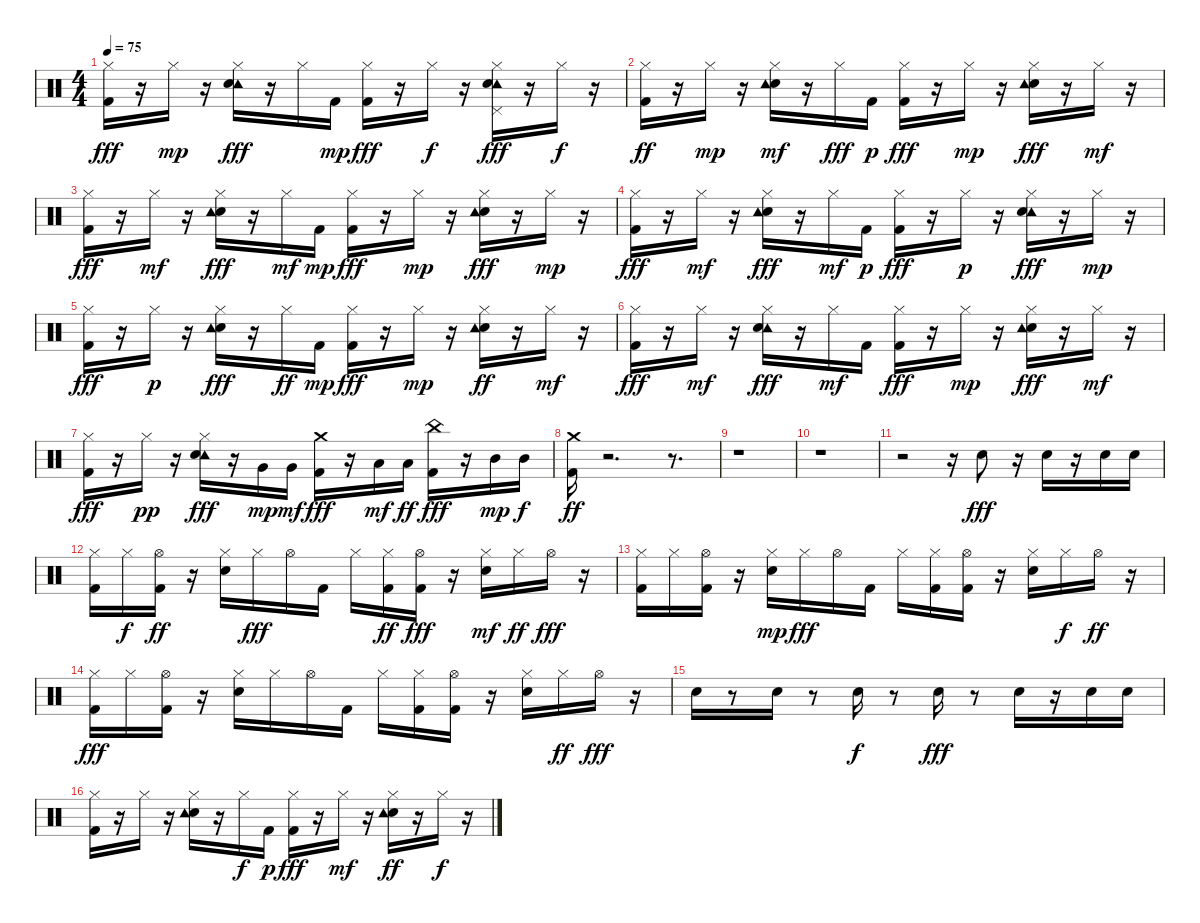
\track "" {instrument percussion}
\staff {score}
\articulation defaults
\ts (4 4)
\tempo 75
\clef neutral
\ks c
("Hi-Hat (closed)" "Kick (hit) 2").16{dy fff} r.16 "Hi-Hat (closed)".16{dy mp} r.16 ("Tambourine (hit)" "Hi-Hat (closed)" "Electric Snare (hit)").16{dy fff} r.16 "Hi-Hat (closed)".16 "Kick (hit) 2".16{dy mp} ("Hi-Hat (closed)" "Kick (hit) 2").16{dy fff} r.16 "Hi-Hat (closed)".16{dy f} r.16 ("Pedal Hi-Hat (hit)" "Tambourine (hit)" "Hi-Hat (closed)" "Electric Snare (hit)").16{dy fff} r.16 "Hi-Hat (closed)".16{dy f} r.16 |
("Hi-Hat (closed)" "Kick (hit) 2").16{dy ff} r.16 "Hi-Hat (closed)".16{dy mp} r.16 ("Hi-Hat (closed)" "Electric Snare (hit)" "Tambourine (hit)").16{dy mf} r.16 "Hi-Hat (closed)".16{dy fff} "Kick (hit) 2".16{dy p} ("Hi-Hat (closed)" "Kick (hit) 2").16{dy fff} r.16 "Hi-Hat (closed)".16{dy mp} r.16 ("Hi-Hat (closed)" "Electric Snare (hit)" "Tambourine (hit)").16{dy fff} r.16 "Hi-Hat (closed)".16{dy mf} r.16 |
("Hi-Hat (closed)" "Kick (hit) 2").16{dy fff} r.16 "Hi-Hat (closed)".16{dy mf} r.16 ("Electric Snare (hit)" "Hi-Hat (closed)" "Tambourine (hit)").16{dy fff} r.16 "Hi-Hat (closed)".16{dy mf} "Kick (hit) 2".16{dy mp} ("Hi-Hat (closed)" "Kick (hit) 2").16{dy fff} r.16 "Hi-Hat (closed)".16{dy mp} r.16 ("Electric Snare (hit)" "Tambourine (hit)" "Hi-Hat (closed)").16{dy fff} r.16 "Hi-Hat (closed)".16{dy mp} r.16 |
("Kick (hit) 2" "Hi-Hat (closed)").16{dy fff} r.16 "Hi-Hat (closed)".16{dy mf} r.16 ("Hi-Hat (closed)" "Electric Snare (hit)" "Tambourine (hit)").16{dy fff} r.16 "Hi-Hat (closed)".16{dy mf} "Kick (hit) 2".16{dy p} ("Kick (hit) 2" "Hi-Hat (closed)").16{dy fff} r.16 "Hi-Hat (closed)".16{dy p} r.16 ("Hi-Hat (closed)" "Tambourine (hit)" "Electric Snare (hit)").16{dy fff} r.16 "Hi-Hat (closed)".16{dy mp} r.16 |
("Kick (hit) 2" "Hi-Hat (closed)").16{dy fff} r.16 "Hi-Hat (closed)".16{dy p} r.16 ("Electric Snare (hit)" "Tambourine (hit)" "Hi-Hat (closed)").16{dy fff} r.16 "Hi-Hat (closed)".16{dy ff} "Kick (hit) 2".16{dy mp} ("Hi-Hat (closed)" "Kick (hit) 2").16{dy fff} r.16 "Hi-Hat (closed)".16{dy mp} r.16 ("Electric Snare (hit)" "Hi-Hat (closed)" "Tambourine (hit)").16{dy ff} r.16 "Hi-Hat (closed)".16{dy mf} r.16 |
("Hi-Hat (closed)" "Kick (hit) 2").16{dy fff} r.16 "Hi-Hat (closed)".16{dy mf} r.16 ("Tambourine (hit)" "Hi-Hat (closed)" "Electric Snare (hit)").16{dy fff} r.16 "Hi-Hat (closed)".16{dy mf} "Kick (hit) 2".16 ("Kick (hit) 2" "Hi-Hat (closed)").16{dy fff} r.16 "Hi-Hat (closed)".16{dy mp} r.16 ("Electric Snare (hit)" "Tambourine (hit)" "Hi-Hat (closed)").16{dy fff} r.16 "Hi-Hat (closed)".16{dy mf} r.16 |
("Hi-Hat (closed)" "Kick (hit) 2").16{dy fff} r.16 "Hi-Hat (closed)".16{dy pp} r.16 ("Hi-Hat (closed)" "Tambourine (hit)" "Electric Snare (hit)").16{dy fff} r.16 "Very Low Tom (hit)".16{dy mp} "Very Low Tom (hit)".16{dy mf} ("Kick (hit) 2" "Crash medium (hit)").16{dy fff} r.16 "Low Tom (hit)".16{dy mf} "Low Tom (hit)".16{dy ff} ("China (hit)" "Kick (hit) 2").16{dy fff} r.16 "Mid Tom (hit)".16{dy mp} "Mid Tom (hit)".16{dy f} |
("Kick (hit) 2" "Crash medium (hit)").16{dy ff} r.2{d} r.8{d} |
r.1 |
r.1 |
r.2 r.16 "Electric Snare (hit)".8{dy fff} r.16 "Electric Snare (hit)".16 r.16 "Electric Snare (hit)".16 "Electric Snare (hit)".16 |
("Hi-Hat (closed)" "Kick (hit) 2").16 "Hi-Hat (closed)".16{dy f} ("Hi-Hat (open)" "Kick (hit) 2").16{dy ff} r.16 ("Electric Snare (hit)" "Hi-Hat (closed)").16 "Hi-Hat (closed)".16{dy fff} "Hi-Hat (open)".16 "Kick (hit) 2".16 "Hi-Hat (closed)".16 ("Hi-Hat (closed)" "Kick (hit) 2").16{dy ff} ("Hi-Hat (open)" "Kick (hit) 2").16{dy fff} r.16 ("Electric Snare (hit)" "Hi-Hat (closed)").16{dy mf} "Hi-Hat (closed)".16{dy ff} "Hi-Hat (open)".16{dy fff} r.16 |
("Kick (hit) 2" "Hi-Hat (closed)").16 "Hi-Hat (closed)".16 ("Kick (hit) 2" "Hi-Hat (open)").16 r.16 ("Electric Snare (hit)" "Hi-Hat (closed)").16{dy mp} "Hi-Hat (closed)".16{dy fff} "Hi-Hat (open)".16 "Kick (hit) 2".16 "Hi-Hat (closed)".16 ("Kick (hit) 2" "Hi-Hat (closed)").16 ("Hi-Hat (open)" "Kick (hit) 2").16 r.16 ("Hi-Hat (closed)" "Electric Snare (hit)").16 "Hi-Hat (closed)".16{dy f} "Hi-Hat (open)".16{dy ff} r.16 |
("Kick (hit) 2" "Hi-Hat (closed)").16{dy fff} "Hi-Hat (closed)".16 ("Kick (hit) 2" "Hi-Hat (open)").16 r.16 ("Hi-Hat (closed)" "Electric Snare (hit)").16 "Hi-Hat (closed)".16 "Hi-Hat (open)".16 "Kick (hit) 2".16 "Hi-Hat (closed)".16 ("Kick (hit) 2" "Hi-Hat (closed)").16 ("Hi-Hat (open)" "Kick (hit) 2").16 r.16 ("Hi-Hat (closed)" "Electric Snare (hit)").16 "Hi-Hat (closed)".16{dy ff} "Hi-Hat (open)".16{dy fff} r.16 |
"Electric Snare (hit)".16 r.8 "Electric Snare (hit)".16 r.8 "Electric Snare (hit)".16{dy f} r.8 "Electric Snare (hit)".16{dy fff} r.8 "Electric Snare (hit)".16 r.16 "Electric Snare (hit)".16 "Electric Snare (hit)".16 |
("Hi-Hat (closed)" "Kick (hit) 2").16 r.16 "Hi-Hat (closed)".16 r.16 ("Electric Snare (hit)" "Tambourine (hit)" "Hi-Hat (closed)").16 r.16 "Hi-Hat (closed)".16{dy f} "Kick (hit) 2".16{dy p} ("Kick (hit) 2" "Hi-Hat (closed)").16{dy fff} r.16 "Hi-Hat (closed)".16{dy mf} r.16 ("Electric Snare (hit)" "Hi-Hat (closed)" "Tambourine (hit)").16{dy ff} r.16 "Hi-Hat (closed)".16{dy f} r.16
